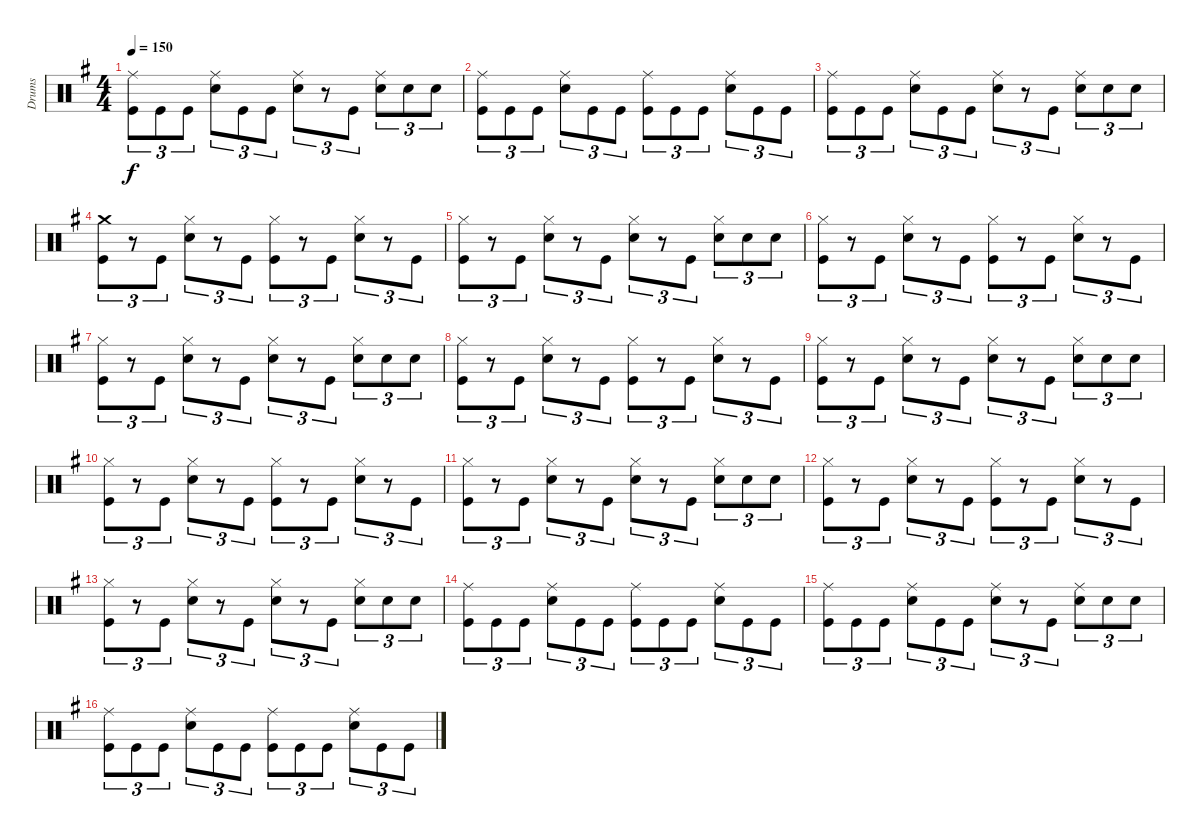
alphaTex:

\track ("Drums" "Drums") {instrument percussion}
\staff {score}
\articulation defaults
\ts (4 4)
\tempo 150
\clef neutral
\ks g
("Ride (middle)" "Kick (hit)").8{tu (3 2) dy f} "Kick (hit)".8{tu (3 2)} "Kick (hit)".8{tu (3 2)} ("Ride (middle)" "Snare (hit) 2").8{tu (3 2)} "Kick (hit)".8{tu (3 2)} "Kick (hit)".8{tu (3 2)} ("Ride (middle)" "Snare (hit) 2").8{tu (3 2)} r.8{tu (3 2)} "Kick (hit)".8{tu (3 2)} ("Ride (middle)" "Snare (hit) 2").8{tu (3 2)} "Snare (hit) 2".8{tu (3 2)} "Snare (hit) 2".8{tu (3 2)} |
("Ride (middle)" "Kick (hit)").8{tu (3 2)} "Kick (hit)".8{tu (3 2)} "Kick (hit)".8{tu (3 2)} ("Ride (middle)" "Snare (hit) 2").8{tu (3 2)} "Kick (hit)".8{tu (3 2)} "Kick (hit)".8{tu (3 2)} ("Ride (middle)" "Kick (hit)").8{tu (3 2)} "Kick (hit)".8{tu (3 2)} "Kick (hit)".8{tu (3 2)} ("Ride (middle)" "Snare (hit) 2").8{tu (3 2)} "Kick (hit)".8{tu (3 2)} "Kick (hit)".8{tu (3 2)} |
("Ride (middle)" "Kick (hit)").8{tu (3 2)} "Kick (hit)".8{tu (3 2)} "Kick (hit)".8{tu (3 2)} ("Ride (middle)" "Snare (hit) 2").8{tu (3 2)} "Kick (hit)".8{tu (3 2)} "Kick (hit)".8{tu (3 2)} ("Ride (middle)" "Snare (hit) 2").8{tu (3 2)} r.8{tu (3 2)} "Kick (hit)".8{tu (3 2)} ("Ride (middle)" "Snare (hit) 2").8{tu (3 2)} "Snare (hit) 2".8{tu (3 2)} "Snare (hit) 2".8{tu (3 2)} |
("Crash medium (hit)" "Kick (hit)").8{tu (3 2)} r.8{tu (3 2)} "Kick (hit)".8{tu (3 2)} ("Hi-Hat (closed)" "Snare (hit) 2").8{tu (3 2)} r.8{tu (3 2)} "Kick (hit)".8{tu (3 2)} ("Hi-Hat (closed)" "Kick (hit)").8{tu (3 2)} r.8{tu (3 2)} "Kick (hit)".8{tu (3 2)} ("Hi-Hat (closed)" "Snare (hit) 2").8{tu (3 2)} r.8{tu (3 2)} "Kick (hit)".8{tu (3 2)} |
("Hi-Hat (closed)" "Kick (hit)").8{tu (3 2)} r.8{tu (3 2)} "Kick (hit)".8{tu (3 2)} ("Hi-Hat (closed)" "Snare (hit) 2").8{tu (3 2)} r.8{tu (3 2)} "Kick (hit)".8{tu (3 2)} ("Hi-Hat (closed)" "Snare (hit) 2").8{tu (3 2)} r.8{tu (3 2)} "Kick (hit)".8{tu (3 2)} ("Hi-Hat (closed)" "Snare (hit) 2").8{tu (3 2)} "Snare (hit) 2".8{tu (3 2)} "Snare (hit) 2".8{tu (3 2)} |
("Hi-Hat (closed)" "Kick (hit)").8{tu (3 2)} r.8{tu (3 2)} "Kick (hit)".8{tu (3 2)} ("Hi-Hat (closed)" "Snare (hit) 2").8{tu (3 2)} r.8{tu (3 2)} "Kick (hit)".8{tu (3 2)} ("Hi-Hat (closed)" "Kick (hit)").8{tu (3 2)} r.8{tu (3 2)} "Kick (hit)".8{tu (3 2)} ("Hi-Hat (closed)" "Snare (hit) 2").8{tu (3 2)} r.8{tu (3 2)} "Kick (hit)".8{tu (3 2)} |
("Hi-Hat (closed)" "Kick (hit)").8{tu (3 2)} r.8{tu (3 2)} "Kick (hit)".8{tu (3 2)} ("Hi-Hat (closed)" "Snare (hit) 2").8{tu (3 2)} r.8{tu (3 2)} "Kick (hit)".8{tu (3 2)} ("Hi-Hat (closed)" "Snare (hit) 2").8{tu (3 2)} r.8{tu (3 2)} "Kick (hit)".8{tu (3 2)} ("Hi-Hat (closed)" "Snare (hit) 2").8{tu (3 2)} "Snare (hit) 2".8{tu (3 2)} "Snare (hit) 2".8{tu (3 2)} |
("Hi-Hat (closed)" "Kick (hit)").8{tu (3 2)} r.8{tu (3 2)} "Kick (hit)".8{tu (3 2)} ("Hi-Hat (closed)" "Snare (hit) 2").8{tu (3 2)} r.8{tu (3 2)} "Kick (hit)".8{tu (3 2)} ("Hi-Hat (closed)" "Kick (hit)").8{tu (3 2)} r.8{tu (3 2)} "Kick (hit)".8{tu (3 2)} ("Hi-Hat (closed)" "Snare (hit) 2").8{tu (3 2)} r.8{tu (3 2)} "Kick (hit)".8{tu (3 2)} |
("Hi-Hat (closed)" "Kick (hit)").8{tu (3 2)} r.8{tu (3 2)} "Kick (hit)".8{tu (3 2)} ("Hi-Hat (closed)" "Snare (hit) 2").8{tu (3 2)} r.8{tu (3 2)} "Kick (hit)".8{tu (3 2)} ("Hi-Hat (closed)" "Snare (hit) 2").8{tu (3 2)} r.8{tu (3 2)} "Kick (hit)".8{tu (3 2)} ("Hi-Hat (closed)" "Snare (hit) 2").8{tu (3 2)} "Snare (hit) 2".8{tu (3 2)} "Snare (hit) 2".8{tu (3 2)} |
("Hi-Hat (closed)" "Kick (hit)").8{tu (3 2)} r.8{tu (3 2)} "Kick (hit)".8{tu (3 2)} ("Hi-Hat (closed)" "Snare (hit) 2").8{tu (3 2)} r.8{tu (3 2)} "Kick (hit)".8{tu (3 2)} ("Hi-Hat (closed)" "Kick (hit)").8{tu (3 2)} r.8{tu (3 2)} "Kick (hit)".8{tu (3 2)} ("Hi-Hat (closed)" "Snare (hit) 2").8{tu (3 2)} r.8{tu (3 2)} "Kick (hit)".8{tu (3 2)} |
("Hi-Hat (closed)" "Kick (hit)").8{tu (3 2)} r.8{tu (3 2)} "Kick (hit)".8{tu (3 2)} ("Hi-Hat (closed)" "Snare (hit) 2").8{tu (3 2)} r.8{tu (3 2)} "Kick (hit)".8{tu (3 2)} ("Hi-Hat (closed)" "Snare (hit) 2").8{tu (3 2)} r.8{tu (3 2)} "Kick (hit)".8{tu (3 2)} ("Hi-Hat (closed)" "Snare (hit) 2").8{tu (3 2)} "Snare (hit) 2".8{tu (3 2)} "Snare (hit) 2".8{tu (3 2)} |
("Hi-Hat (closed)" "Kick (hit)").8{tu (3 2)} r.8{tu (3 2)} "Kick (hit)".8{tu (3 2)} ("Hi-Hat (closed)" "Snare (hit) 2").8{tu (3 2)} r.8{tu (3 2)} "Kick (hit)".8{tu (3 2)} ("Hi-Hat (closed)" "Kick (hit)").8{tu (3 2)} r.8{tu (3 2)} "Kick (hit)".8{tu (3 2)} ("Hi-Hat (closed)" "Snare (hit) 2").8{tu (3 2)} r.8{tu (3 2)} "Kick (hit)".8{tu (3 2)} |
("Hi-Hat (closed)" "Kick (hit)").8{tu (3 2)} r.8{tu (3 2)} "Kick (hit)".8{tu (3 2)} ("Hi-Hat (closed)" "Snare (hit) 2").8{tu (3 2)} r.8{tu (3 2)} "Kick (hit)".8{tu (3 2)} ("Hi-Hat (closed)" "Snare (hit) 2").8{tu (3 2)} r.8{tu (3 2)} "Kick (hit)".8{tu (3 2)} ("Hi-Hat (closed)" "Snare (hit) 2").8{tu (3 2)} "Snare (hit) 2".8{tu (3 2)} "Snare (hit) 2".8{tu (3 2)} |
("Ride (middle)" "Kick (hit)").8{tu (3 2)} "Kick (hit)".8{tu (3 2)} "Kick (hit)".8{tu (3 2)} ("Ride (middle)" "Snare (hit) 2").8{tu (3 2)} "Kick (hit)".8{tu (3 2)} "Kick (hit)".8{tu (3 2)} ("Ride (middle)" "Kick (hit)").8{tu (3 2)} "Kick (hit)".8{tu (3 2)} "Kick (hit)".8{tu (3 2)} ("Ride (middle)" "Snare (hit) 2").8{tu (3 2)} "Kick (hit)".8{tu (3 2)} "Kick (hit)".8{tu (3 2)} |
("Ride (middle)" "Kick (hit)").8{tu (3 2)} "Kick (hit)".8{tu (3 2)} "Kick (hit)".8{tu (3 2)} ("Ride (middle)" "Snare (hit) 2").8{tu (3 2)} "Kick (hit)".8{tu (3 2)} "Kick (hit)".8{tu (3 2)} ("Ride (middle)" "Snare (hit) 2").8{tu (3 2)} r.8{tu (3 2)} "Kick (hit)".8{tu (3 2)} ("Ride (middle)" "Snare (hit) 2").8{tu (3 2)} "Snare (hit) 2".8{tu (3 2)} "Snare (hit) 2".8{tu (3 2)} |
("Ride (middle)" "Kick (hit)").8{tu (3 2)} "Kick (hit)".8{tu (3 2)} "Kick (hit)".8{tu (3 2)} ("Ride (middle)" "Snare (hit) 2").8{tu (3 2)} "Kick (hit)".8{tu (3 2)} "Kick (hit)".8{tu (3 2)} ("Ride (middle)" "Kick (hit)").8{tu (3 2)} "Kick (hit)".8{tu (3 2)} "Kick (hit)".8{tu (3 2)} ("Ride (middle)" "Snare (hit) 2").8{tu (3 2)} "Kick (hit)".8{tu (3 2)} "Kick (hit)".8{tu (3 2)}
